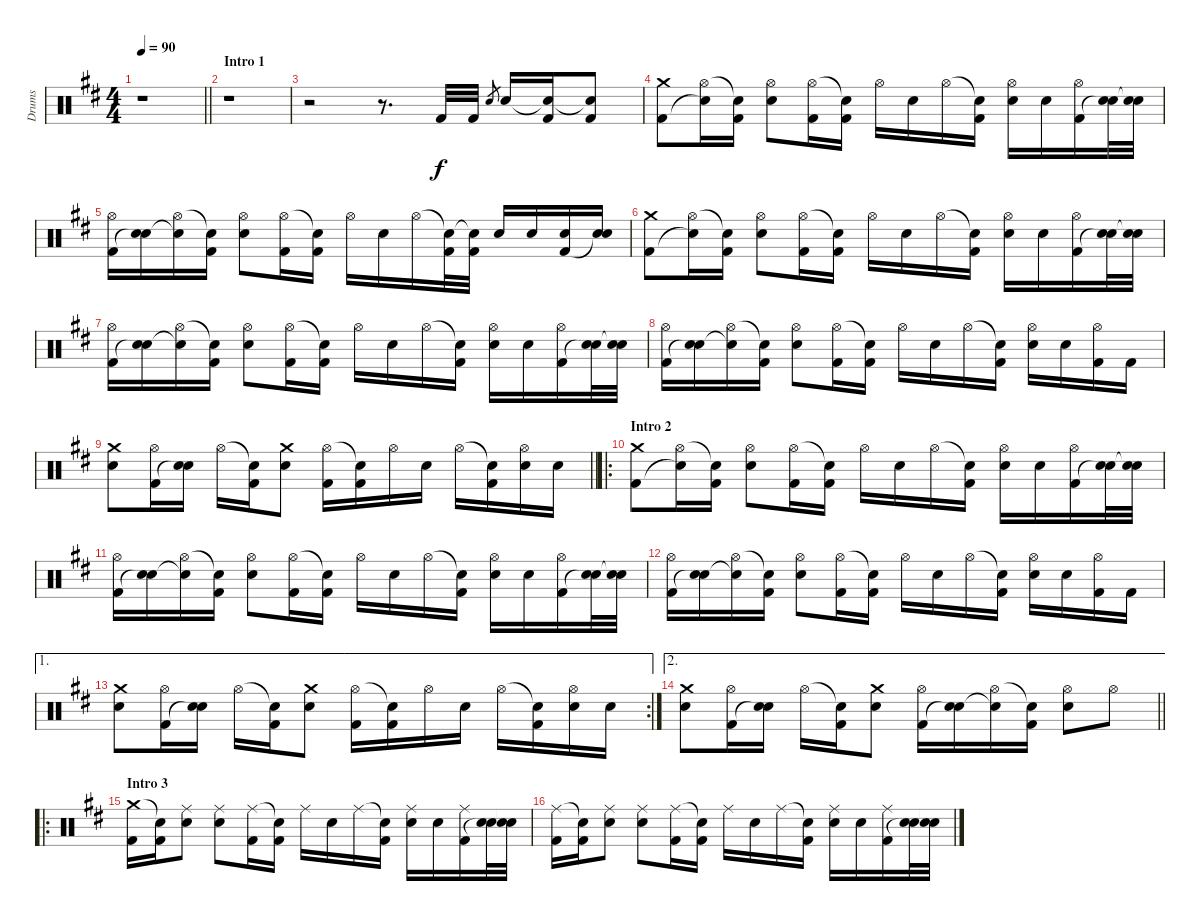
\track ("Drums" "Drums") {instrument percussion}
\staff {score}
\articulation defaults
\ts (4 4)
\tempo 90
\clef neutral
\barLineRight lightlight
\ks d
r.1{dy f} |
\section ("" "Intro 1")
r.1 |
r.2 r.8{d} "Kick (hit) 2".32 "Kick (hit) 2".32 "Electric Snare (hit)".8{gr} "Electric Snare (hit)".16 ("Snare (hit)"{t} "Kick (hit) 2").16 ("Snare (hit)"{t} "Kick (hit) 2").8 |
("Crash medium (hit)" "Kick (hit) 2").8 ("Hi-Hat (open)" "Snare (hit)"{t}).16 ("Snare (hit)"{t} "Kick (hit) 2").16 ("Hi-Hat (open)" "Electric Snare (hit)").8 ("Hi-Hat (open)" "Kick (hit) 2").16 ("Snare (hit)"{t} "Kick (hit) 2").16 "Hi-Hat (open)".16 "Electric Snare (hit)".16 "Hi-Hat (open)".16 ("Snare (hit)"{t} "Kick (hit) 2").16 ("Hi-Hat (open)" "Electric Snare (hit)").16 "Electric Snare (hit)".16 ("Hi-Hat (open)" "Kick (hit) 2").16 ("Electric Snare (hit)" "Snare (hit)"{t}).32 ("Electric Snare (hit)" "Snare (hit)"{t}).32 |
("Hi-Hat (open)" "Kick (hit) 2").16 ("Electric Snare (hit)" "Snare (hit)"{t}).16 ("Hi-Hat (open)" "Snare (hit)"{t}).16 ("Snare (hit)"{t} "Kick (hit) 2").16 ("Hi-Hat (open)" "Electric Snare (hit)").8 ("Hi-Hat (open)" "Kick (hit) 2").16 ("Snare (hit)"{t} "Kick (hit) 2").16 "Hi-Hat (open)".16 "Electric Snare (hit)".16 "Hi-Hat (open)".16 ("Snare (hit)"{t} "Kick (hit) 2").32 ("Snare (hit)"{t} "Kick (hit) 2").32 "Electric Snare (hit)".16 "Electric Snare (hit)".16 ("Electric Snare (hit)" "Kick (hit) 2").16 ("Electric Snare (hit)" "Snare (hit)"{t}).16 |
("Crash medium (hit)" "Kick (hit) 2").8 ("Hi-Hat (open)" "Snare (hit)"{t}).16 ("Snare (hit)"{t} "Kick (hit) 2").16 ("Hi-Hat (open)" "Electric Snare (hit)").8 ("Hi-Hat (open)" "Kick (hit) 2").16 ("Snare (hit)"{t} "Kick (hit) 2").16 "Hi-Hat (open)".16 "Electric Snare (hit)".16 "Hi-Hat (open)".16 ("Snare (hit)"{t} "Kick (hit) 2").16 ("Hi-Hat (open)" "Electric Snare (hit)").16 "Electric Snare (hit)".16 ("Hi-Hat (open)" "Kick (hit) 2").16 ("Electric Snare (hit)" "Snare (hit)"{t}).32 ("Electric Snare (hit)" "Snare (hit)"{t}).32 |
("Hi-Hat (open)" "Kick (hit) 2").16 ("Electric Snare (hit)" "Snare (hit)"{t}).16 ("Hi-Hat (open)" "Snare (hit)"{t}).16 ("Snare (hit)"{t} "Kick (hit) 2").16 ("Hi-Hat (open)" "Electric Snare (hit)").8 ("Hi-Hat (open)" "Kick (hit) 2").16 ("Snare (hit)"{t} "Kick (hit) 2").16 "Hi-Hat (open)".16 "Electric Snare (hit)".16 "Hi-Hat (open)".16 ("Snare (hit)"{t} "Kick (hit) 2").16 ("Hi-Hat (open)" "Electric Snare (hit)").16 "Electric Snare (hit)".16 ("Hi-Hat (open)" "Kick (hit) 2").16 ("Electric Snare (hit)" "Snare (hit)"{t}).32 ("Electric Snare (hit)" "Snare (hit)"{t}).32 |
("Hi-Hat (open)" "Kick (hit) 2").16 ("Electric Snare (hit)" "Snare (hit)"{t}).16 ("Hi-Hat (open)" "Snare (hit)"{t}).16 ("Snare (hit)"{t} "Kick (hit) 2").16 ("Hi-Hat (open)" "Electric Snare (hit)").8 ("Hi-Hat (open)" "Kick (hit) 2").16 ("Snare (hit)"{t} "Kick (hit) 2").16 "Hi-Hat (open)".16 "Electric Snare (hit)".16 "Hi-Hat (open)".16 ("Snare (hit)"{t} "Kick (hit) 2").16 ("Hi-Hat (open)" "Electric Snare (hit)").16 "Electric Snare (hit)".16 ("Hi-Hat (open)" "Kick (hit) 2").16 "Kick (hit) 2".16 |
\barLineRight lightlight
("Crash medium (hit)" "Electric Snare (hit)").8 ("Hi-Hat (open)" "Kick (hit) 2").16 ("Electric Snare (hit)" "Snare (hit)"{t}).16 "Hi-Hat (open)".16 ("Snare (hit)"{t} "Kick (hit) 2").16 ("Crash medium (hit)" "Electric Snare (hit)").8 ("Hi-Hat (open)" "Kick (hit) 2").16 ("Snare (hit)"{t} "Kick (hit) 2").16 "Hi-Hat (open)".16 "Electric Snare (hit)".16 "Hi-Hat (open)".16 ("Snare (hit)"{t} "Kick (hit) 2").16 ("Hi-Hat (open)" "Electric Snare (hit)").16 "Electric Snare (hit)".16 |
\ro
\section ("" "Intro 2")
("Crash medium (hit)" "Kick (hit) 2").8 ("Hi-Hat (open)" "Snare (hit)"{t}).16 ("Snare (hit)"{t} "Kick (hit) 2").16 ("Hi-Hat (open)" "Electric Snare (hit)").8 ("Hi-Hat (open)" "Kick (hit) 2").16 ("Snare (hit)"{t} "Kick (hit) 2").16 "Hi-Hat (open)".16 "Electric Snare (hit)".16 "Hi-Hat (open)".16 ("Snare (hit)"{t} "Kick (hit) 2").16 ("Hi-Hat (open)" "Electric Snare (hit)").16 "Electric Snare (hit)".16 ("Hi-Hat (open)" "Kick (hit) 2").16 ("Electric Snare (hit)" "Snare (hit)"{t}).32 ("Electric Snare (hit)" "Snare (hit)"{t}).32 |
("Hi-Hat (open)" "Kick (hit) 2").16 ("Electric Snare (hit)" "Snare (hit)"{t}).16 ("Hi-Hat (open)" "Snare (hit)"{t}).16 ("Snare (hit)"{t} "Kick (hit) 2").16 ("Hi-Hat (open)" "Electric Snare (hit)").8 ("Hi-Hat (open)" "Kick (hit) 2").16 ("Snare (hit)"{t} "Kick (hit) 2").16 "Hi-Hat (open)".16 "Electric Snare (hit)".16 "Hi-Hat (open)".16 ("Snare (hit)"{t} "Kick (hit) 2").16 ("Hi-Hat (open)" "Electric Snare (hit)").16 "Electric Snare (hit)".16 ("Hi-Hat (open)" "Kick (hit) 2").16 ("Electric Snare (hit)" "Snare (hit)"{t}).32 ("Electric Snare (hit)" "Snare (hit)"{t}).32 |
("Hi-Hat (open)" "Kick (hit) 2").16 ("Electric Snare (hit)" "Snare (hit)"{t}).16 ("Hi-Hat (open)" "Snare (hit)"{t}).16 ("Snare (hit)"{t} "Kick (hit) 2").16 ("Hi-Hat (open)" "Electric Snare (hit)").8 ("Hi-Hat (open)" "Kick (hit) 2").16 ("Snare (hit)"{t} "Kick (hit) 2").16 "Hi-Hat (open)".16 "Electric Snare (hit)".16 "Hi-Hat (open)".16 ("Snare (hit)"{t} "Kick (hit) 2").16 ("Hi-Hat (open)" "Electric Snare (hit)").16 "Electric Snare (hit)".16 ("Hi-Hat (open)" "Kick (hit) 2").16 "Kick (hit) 2".16 |
\ae 1
\rc 2
("Crash medium (hit)" "Electric Snare (hit)").8 ("Hi-Hat (open)" "Kick (hit) 2").16 ("Electric Snare (hit)" "Snare (hit)"{t}).16 "Hi-Hat (open)".16 ("Snare (hit)"{t} "Kick (hit) 2").16 ("Crash medium (hit)" "Electric Snare (hit)").8 ("Hi-Hat (open)" "Kick (hit) 2").16 ("Snare (hit)"{t} "Kick (hit) 2").16 "Hi-Hat (open)".16 "Electric Snare (hit)".16 "Hi-Hat (open)".16 ("Snare (hit)"{t} "Kick (hit) 2").16 ("Hi-Hat (open)" "Electric Snare (hit)").16 "Electric Snare (hit)".16 |
\ae 2
\barLineRight lightlight
("Crash medium (hit)" "Electric Snare (hit)").8 ("Hi-Hat (open)" "Kick (hit) 2").16 ("Electric Snare (hit)" "Snare (hit)"{t}).16 "Hi-Hat (open)".16 ("Snare (hit)"{t} "Kick (hit) 2").16 ("Crash medium (hit)" "Electric Snare (hit)").8 ("Hi-Hat (open)" "Kick (hit) 2").16 ("Electric Snare (hit)" "Snare (hit)"{t}).16 ("Hi-Hat (open)" "Snare (hit)"{t}).16 ("Snare (hit)"{t} "Kick (hit) 2").16 ("Hi-Hat (open)" "Electric Snare (hit)").8 "Hi-Hat (open)".8 |
\ro
\section ("" "Intro 3")
("Crash medium (hit)" "Kick (hit) 2").16 ("Snare (hit)"{t} "Kick (hit) 2").16 ("Ride (middle)" "Electric Snare (hit)").8 ("Ride (middle)" "Electric Snare (hit)").8 ("Ride (middle)" "Kick (hit) 2").16 ("Snare (hit)"{t} "Kick (hit) 2").16 "Ride (middle)".16 "Electric Snare (hit)".16 "Ride (middle)".16 ("Snare (hit)"{t} "Kick (hit) 2").16 ("Ride (middle)" "Electric Snare (hit)").16 "Electric Snare (hit)".16 ("Ride (middle)" "Kick (hit) 2").16 ("Electric Snare (hit)" "Snare (hit)"{t}).32 ("Electric Snare (hit)" "Snare (hit)"{t}).32 |
("Ride (middle)" "Kick (hit) 2").16 ("Snare (hit)"{t} "Kick (hit) 2").16 ("Ride (middle)" "Electric Snare (hit)").8 ("Ride (middle)" "Electric Snare (hit)").8 ("Ride (middle)" "Kick (hit) 2").16 ("Snare (hit)"{t} "Kick (hit) 2").16 "Ride (middle)".16 "Electric Snare (hit)".16 "Ride (middle)".16 ("Snare (hit)"{t} "Kick (hit) 2").16 ("Ride (middle)" "Electric Snare (hit)").16 "Electric Snare (hit)".16 ("Ride (middle)" "Kick (hit) 2").16 ("Electric Snare (hit)" "Snare (hit)"{t}).32 ("Electric Snare (hit)" "Snare (hit)"{t}).32
